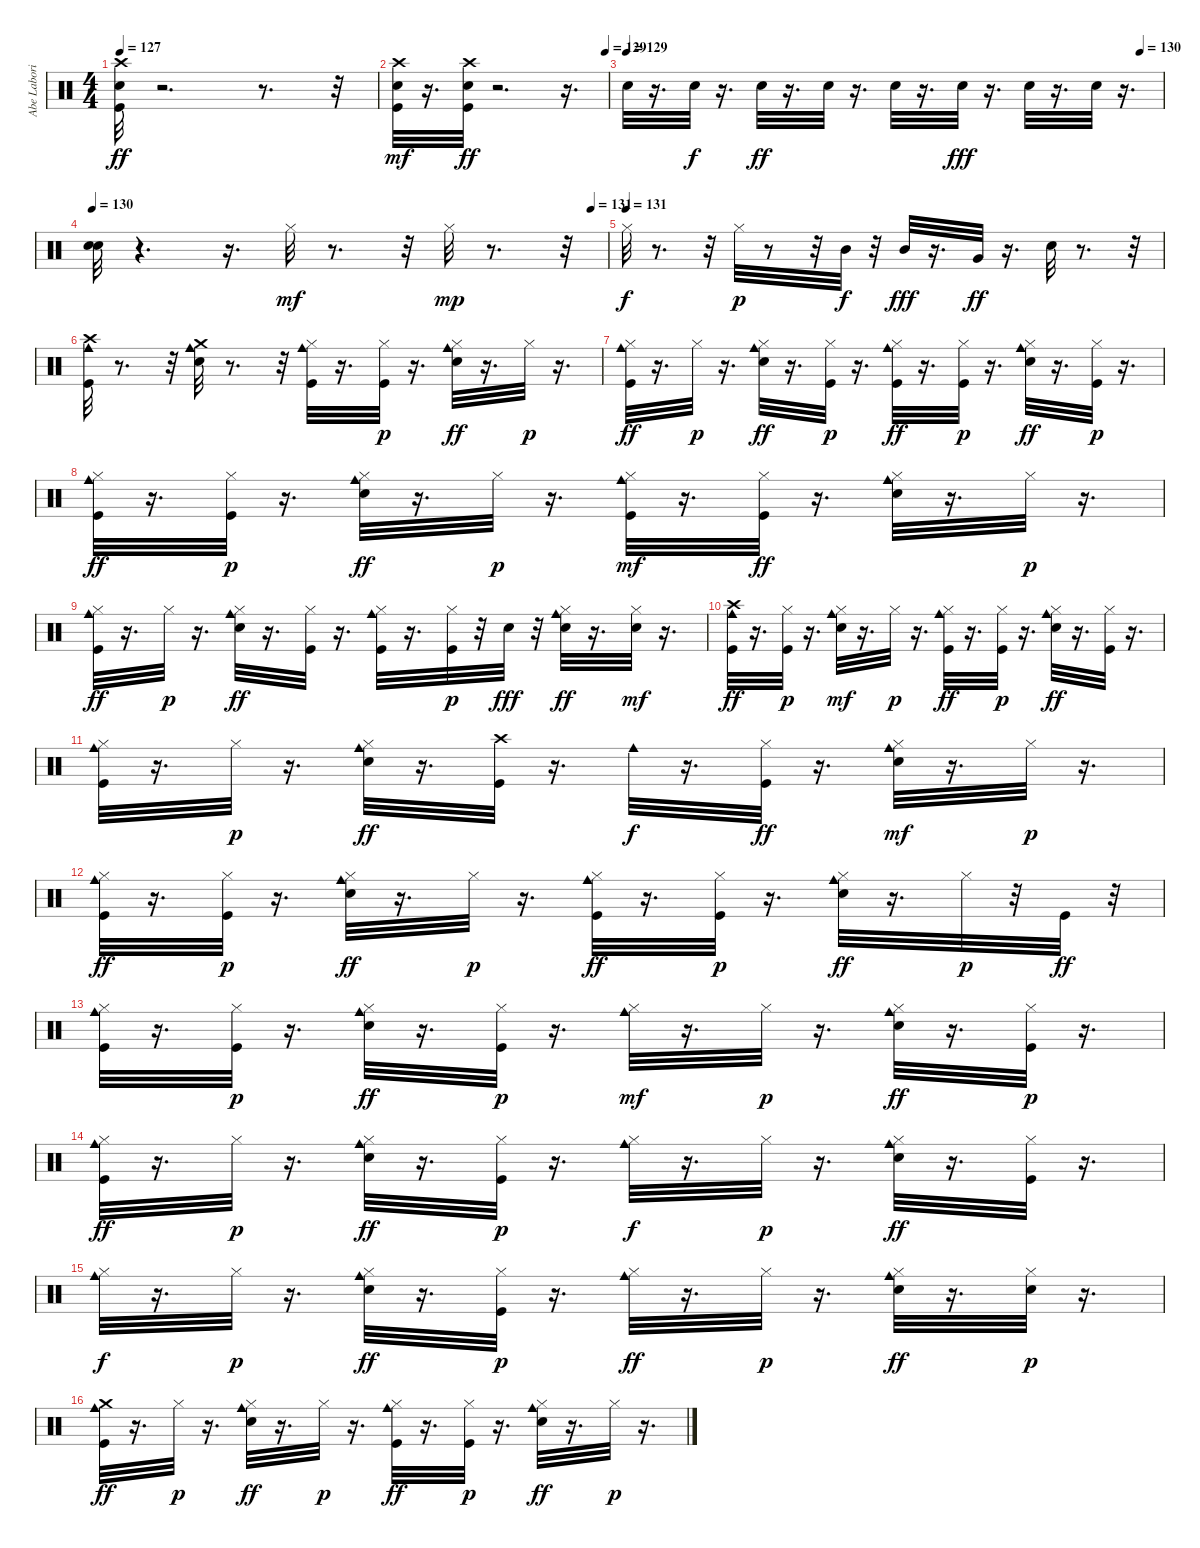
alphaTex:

\track ("Abe Laboriel, Jr." "Abe Labori") {instrument percussion}
\staff {score}
\articulation defaults
\ts (4 4)
\tempo 127
\clef neutral
\ks c
("Snare (hit) 2" "Kick (hit)" "Crash high (hit)").32{dy ff} r.2{d} r.8{d} r.32 |
\tempo (129 0.9895833333333334)
("Kick (hit)" "Snare (hit) 2" "Crash high (hit)").32{dy mf} r.16{d} ("Snare (hit) 2" "Kick (hit)" "Crash high (hit)").32{dy ff} r.2{d} r.16{d} |
\tempo 129
\tempo (130 0.9583333333333334)
"Snare (hit) 2".32 r.16{d} "Snare (hit) 2".32{dy f} r.16{d} "Snare (hit) 2".32{dy ff} r.16{d} "Snare (hit) 2".32 r.16{d} "Snare (hit) 2".32 r.16{d} "Snare (hit) 2".32{dy fff} r.16{d} "Snare (hit) 2".32 r.16{d} "Snare (hit) 2".32 r.16{d} |
\tempo 130
\tempo (131 0.96875)
("Snare (hit) 2" "Snare (hit) 2").32 r.4{d} r.16{d} "Hi-Hat (closed)".32{dy mf} r.8{d} r.32 "Hi-Hat (closed)".32{dy mp} r.8{d} r.32 |
\tempo (131)
"Hi-Hat (closed)".32{dy f} r.8{d} r.32 "Hi-Hat (closed)".32{dy p} r.8 r.32 "Mid Tom (hit)".32{dy f} r.32 "Mid Tom (hit)".32{dy fff} r.16{d} "Very Low Tom (hit)".32{dy ff} r.16{d} "Snare (hit) 2".32 r.8{d} r.32 |
("Crash high (hit)" "Cowbell medium (hit)" "Kick (hit)").32 r.8{d} r.32 ("Crash medium (hit)" "Snare (hit) 2" "Cowbell medium (hit)").32 r.8{d} r.32 ("Kick (hit)" "Hi-Hat (closed)" "Cowbell medium (hit)").32 r.16{d} ("Kick (hit)" "Hi-Hat (closed)").32{dy p} r.16{d} ("Snare (hit) 2" "Hi-Hat (closed)" "Cowbell medium (hit)").32{dy ff} r.16{d} "Hi-Hat (closed)".32{dy p} r.16{d} |
("Hi-Hat (closed)" "Kick (hit)" "Cowbell medium (hit)").32{dy ff} r.16{d} "Hi-Hat (closed)".32{dy p} r.16{d} ("Hi-Hat (closed)" "Snare (hit) 2" "Cowbell medium (hit)").32{dy ff} r.16{d} ("Hi-Hat (closed)" "Kick (hit)").32{dy p} r.16{d} ("Hi-Hat (closed)" "Kick (hit)" "Cowbell medium (hit)").32{dy ff} r.16{d} ("Hi-Hat (closed)" "Kick (hit)").32{dy p} r.16{d} ("Cowbell medium (hit)" "Snare (hit) 2" "Hi-Hat (closed)").32{dy ff} r.16{d} ("Kick (hit)" "Hi-Hat (closed)").32{dy p} r.16{d} |
("Hi-Hat (closed)" "Kick (hit)" "Cowbell medium (hit)").32{dy ff} r.16{d} ("Kick (hit)" "Hi-Hat (closed)").32{dy p} r.16{d} ("Hi-Hat (closed)" "Snare (hit) 2" "Cowbell medium (hit)").32{dy ff} r.16{d} "Hi-Hat (closed)".32{dy p} r.16{d} ("Kick (hit)" "Hi-Hat (closed)" "Cowbell medium (hit)").32{dy mf} r.16{d} ("Hi-Hat (closed)" "Kick (hit)").32{dy ff} r.16{d} ("Cowbell medium (hit)" "Hi-Hat (closed)" "Snare (hit) 2").32 r.16{d} "Hi-Hat (closed)".32{dy p} r.16{d} |
("Cowbell medium (hit)" "Hi-Hat (closed)" "Kick (hit)").32{dy ff} r.16{d} "Hi-Hat (closed)".32{dy p} r.16{d} ("Hi-Hat (closed)" "Cowbell medium (hit)" "Snare (hit) 2").32{dy ff} r.16{d} ("Hi-Hat (closed)" "Kick (hit)").32 r.16{d} ("Cowbell medium (hit)" "Hi-Hat (closed)" "Kick (hit)").32 r.16{d} ("Kick (hit)" "Hi-Hat (closed)").32{dy p} r.32 "Snare (hit) 2".32{dy fff} r.32 ("Cowbell medium (hit)" "Hi-Hat (closed)" "Snare (hit) 2").32{dy ff} r.16{d} ("Hi-Hat (closed)" "Snare (hit) 2").32{dy mf} r.16{d} |
("Kick (hit)" "Crash high (hit)" "Cowbell medium (hit)").32{dy ff} r.16{d} ("Kick (hit)" "Hi-Hat (closed)").32{dy p} r.16{d} ("Cowbell medium (hit)" "Snare (hit) 2" "Hi-Hat (closed)").32{dy mf} r.16{d} "Hi-Hat (closed)".32{dy p} r.16{d} ("Cowbell medium (hit)" "Kick (hit)" "Hi-Hat (closed)").32{dy ff} r.16{d} ("Kick (hit)" "Hi-Hat (closed)").32{dy p} r.16{d} ("Snare (hit) 2" "Cowbell medium (hit)" "Hi-Hat (closed)").32{dy ff} r.16{d} ("Hi-Hat (closed)" "Kick (hit)").32 r.16{d} |
("Kick (hit)" "Hi-Hat (closed)" "Cowbell medium (hit)").32 r.16{d} "Hi-Hat (closed)".32{dy p} r.16{d} ("Cowbell medium (hit)" "Snare (hit) 2" "Hi-Hat (closed)").32{dy ff} r.16{d} ("Kick (hit)" "Crash high (hit)").32 r.16{d} "Cowbell medium (hit)".32{dy f} r.16{d} ("Hi-Hat (closed)" "Kick (hit)").32{dy ff} r.16{d} ("Cowbell medium (hit)" "Snare (hit) 2" "Hi-Hat (closed)").32{dy mf} r.16{d} "Hi-Hat (closed)".32{dy p} r.16{d} |
("Kick (hit)" "Cowbell medium (hit)" "Hi-Hat (closed)").32{dy ff} r.16{d} ("Kick (hit)" "Hi-Hat (closed)").32{dy p} r.16{d} ("Cowbell medium (hit)" "Snare (hit) 2" "Hi-Hat (closed)").32{dy ff} r.16{d} "Hi-Hat (closed)".32{dy p} r.16{d} ("Hi-Hat (closed)" "Kick (hit)" "Cowbell medium (hit)").32{dy ff} r.16{d} ("Kick (hit)" "Hi-Hat (closed)").32{dy p} r.16{d} ("Snare (hit) 2" "Hi-Hat (closed)" "Cowbell medium (hit)").32{dy ff} r.16{d} "Hi-Hat (closed)".32{dy p} r.32 "Kick (hit)".32{dy ff} r.32 |
("Cowbell medium (hit)" "Kick (hit)" "Hi-Hat (closed)").32 r.16{d} ("Hi-Hat (closed)" "Kick (hit)").32{dy p} r.16{d} ("Cowbell medium (hit)" "Hi-Hat (closed)" "Snare (hit) 2").32{dy ff} r.16{d} ("Kick (hit)" "Hi-Hat (closed)").32{dy p} r.16{d} ("Hi-Hat (closed)" "Cowbell medium (hit)").32{dy mf} r.16{d} "Hi-Hat (closed)".32{dy p} r.16{d} ("Hi-Hat (closed)" "Snare (hit) 2" "Cowbell medium (hit)").32{dy ff} r.16{d} ("Kick (hit)" "Hi-Hat (closed)").32{dy p} r.16{d} |
("Cowbell medium (hit)" "Kick (hit)" "Hi-Hat (closed)").32{dy ff} r.16{d} "Hi-Hat (closed)".32{dy p} r.16{d} ("Cowbell medium (hit)" "Hi-Hat (closed)" "Snare (hit) 2").32{dy ff} r.16{d} ("Kick (hit)" "Hi-Hat (closed)").32{dy p} r.16{d} ("Cowbell medium (hit)" "Hi-Hat (closed)").32{dy f} r.16{d} "Hi-Hat (closed)".32{dy p} r.16{d} ("Cowbell medium (hit)" "Hi-Hat (closed)" "Snare (hit) 2").32{dy ff} r.16{d} ("Hi-Hat (closed)" "Kick (hit)").32 r.16{d} |
("Hi-Hat (closed)" "Cowbell medium (hit)").32{dy f} r.16{d} "Hi-Hat (closed)".32{dy p} r.16{d} ("Snare (hit) 2" "Cowbell medium (hit)" "Hi-Hat (closed)").32{dy ff} r.16{d} ("Kick (hit)" "Hi-Hat (closed)").32{dy p} r.16{d} ("Hi-Hat (closed)" "Cowbell medium (hit)").32{dy ff} r.16{d} "Hi-Hat (closed)".32{dy p} r.16{d} ("Snare (hit) 2" "Hi-Hat (closed)" "Cowbell medium (hit)").32{dy ff} r.16{d} ("Snare (hit) 2" "Hi-Hat (closed)").32{dy p} r.16{d} |
("Crash medium (hit)" "Cowbell medium (hit)" "Kick (hit)").32{dy ff} r.16{d} "Hi-Hat (closed)".32{dy p} r.16{d} ("Hi-Hat (closed)" "Snare (hit) 2" "Cowbell medium (hit)").32{dy ff} r.16{d} "Hi-Hat (closed)".32{dy p} r.16{d} ("Hi-Hat (closed)" "Cowbell medium (hit)" "Kick (hit)").32{dy ff} r.16{d} ("Kick (hit)" "Hi-Hat (closed)").32{dy p} r.16{d} ("Cowbell medium (hit)" "Snare (hit) 2" "Hi-Hat (closed)").32{dy ff} r.16{d} "Hi-Hat (closed)".32{dy p} r.16{d}
